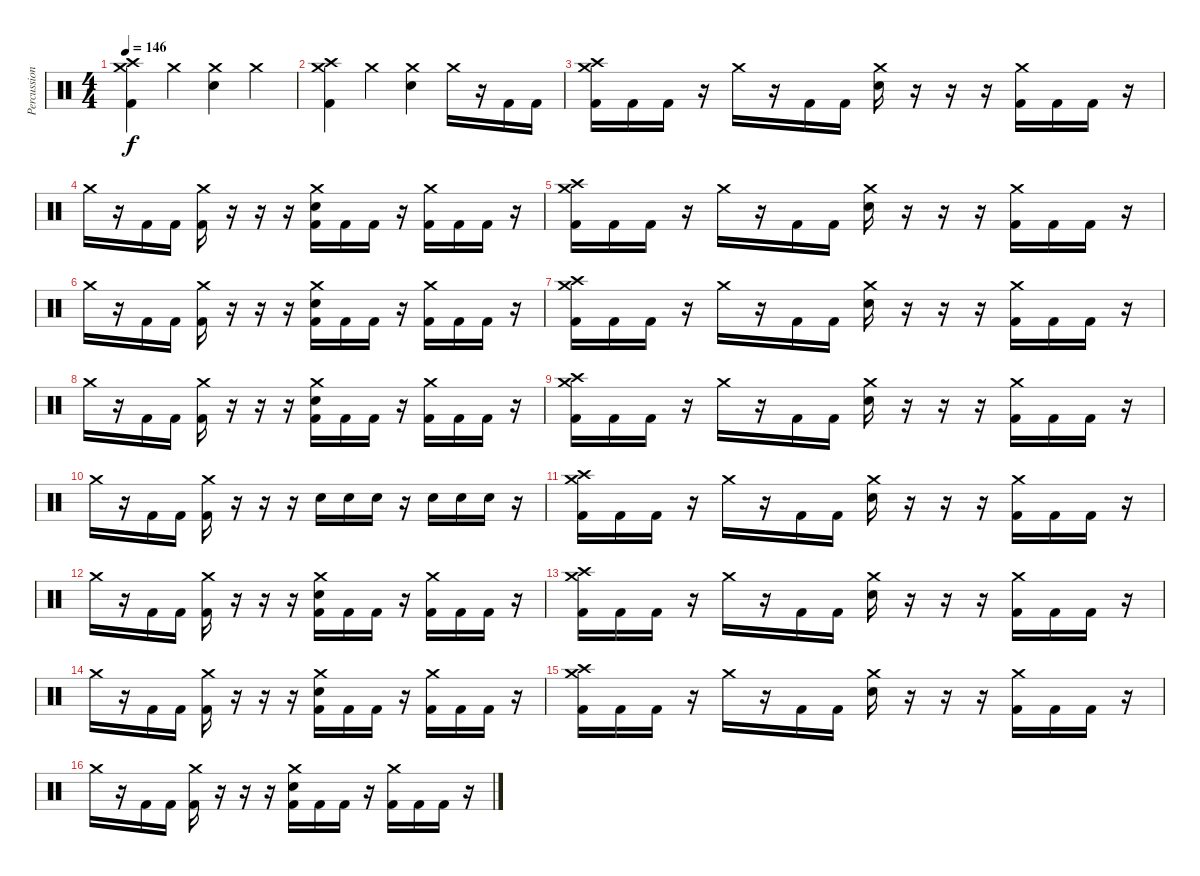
\track ("Percussion" "Percussion") {instrument percussion}
\staff {score}
\articulation defaults
\ts (4 4)
\tempo 146
\clef neutral
\ks c
("Crash high (hit)" "Crash medium (hit)" "Kick (hit) 2").4{dy f} "Crash medium (hit)".4 ("Crash medium (hit)" "Snare (hit) 2").4 "Crash medium (hit)".4 |
("Crash high (hit)" "Crash medium (hit)" "Kick (hit) 2").4 "Crash medium (hit)".4 ("Crash medium (hit)" "Snare (hit) 2").4 "Crash medium (hit)".16 r.16 "Kick (hit) 2".16 "Kick (hit) 2".16 |
("Crash high (hit)" "Crash medium (hit)" "Kick (hit) 2").16 "Kick (hit) 2".16 "Kick (hit) 2".16 r.16 "Crash medium (hit)".16 r.16 "Kick (hit) 2".16 "Kick (hit) 2".16 ("Crash medium (hit)" "Snare (hit) 2").16 r.16 r.16 r.16 ("Crash medium (hit)" "Kick (hit) 2").16 "Kick (hit) 2".16 "Kick (hit) 2".16 r.16 |
"Crash medium (hit)".16 r.16 "Kick (hit) 2".16 "Kick (hit) 2".16 ("Crash medium (hit)" "Kick (hit) 2").16 r.16 r.16 r.16 ("Crash medium (hit)" "Snare (hit) 2" "Kick (hit) 2").16 "Kick (hit) 2".16 "Kick (hit) 2".16 r.16 ("Crash medium (hit)" "Kick (hit) 2").16 "Kick (hit) 2".16 "Kick (hit) 2".16 r.16 |
("Crash high (hit)" "Crash medium (hit)" "Kick (hit) 2").16 "Kick (hit) 2".16 "Kick (hit) 2".16 r.16 "Crash medium (hit)".16 r.16 "Kick (hit) 2".16 "Kick (hit) 2".16 ("Crash medium (hit)" "Snare (hit) 2").16 r.16 r.16 r.16 ("Crash medium (hit)" "Kick (hit) 2").16 "Kick (hit) 2".16 "Kick (hit) 2".16 r.16 |
"Crash medium (hit)".16 r.16 "Kick (hit) 2".16 "Kick (hit) 2".16 ("Crash medium (hit)" "Kick (hit) 2").16 r.16 r.16 r.16 ("Crash medium (hit)" "Snare (hit) 2" "Kick (hit) 2").16 "Kick (hit) 2".16 "Kick (hit) 2".16 r.16 ("Crash medium (hit)" "Kick (hit) 2").16 "Kick (hit) 2".16 "Kick (hit) 2".16 r.16 |
("Crash high (hit)" "Crash medium (hit)" "Kick (hit) 2").16 "Kick (hit) 2".16 "Kick (hit) 2".16 r.16 "Crash medium (hit)".16 r.16 "Kick (hit) 2".16 "Kick (hit) 2".16 ("Crash medium (hit)" "Snare (hit) 2").16 r.16 r.16 r.16 ("Crash medium (hit)" "Kick (hit) 2").16 "Kick (hit) 2".16 "Kick (hit) 2".16 r.16 |
"Crash medium (hit)".16 r.16 "Kick (hit) 2".16 "Kick (hit) 2".16 ("Crash medium (hit)" "Kick (hit) 2").16 r.16 r.16 r.16 ("Crash medium (hit)" "Snare (hit) 2" "Kick (hit) 2").16 "Kick (hit) 2".16 "Kick (hit) 2".16 r.16 ("Crash medium (hit)" "Kick (hit) 2").16 "Kick (hit) 2".16 "Kick (hit) 2".16 r.16 |
("Crash high (hit)" "Crash medium (hit)" "Kick (hit) 2").16 "Kick (hit) 2".16 "Kick (hit) 2".16 r.16 "Crash medium (hit)".16 r.16 "Kick (hit) 2".16 "Kick (hit) 2".16 ("Crash medium (hit)" "Snare (hit) 2").16 r.16 r.16 r.16 ("Crash medium (hit)" "Kick (hit) 2").16 "Kick (hit) 2".16 "Kick (hit) 2".16 r.16 |
"Crash medium (hit)".16 r.16 "Kick (hit) 2".16 "Kick (hit) 2".16 ("Crash medium (hit)" "Kick (hit) 2").16 r.16 r.16 r.16 "Snare (hit) 2".16 "Snare (hit) 2".16 "Snare (hit) 2".16 r.16 "Snare (hit) 2".16 "Snare (hit) 2".16 "Snare (hit) 2".16 r.16 |
("Crash high (hit)" "Crash medium (hit)" "Kick (hit) 2").16 "Kick (hit) 2".16 "Kick (hit) 2".16 r.16 "Crash medium (hit)".16 r.16 "Kick (hit) 2".16 "Kick (hit) 2".16 ("Crash medium (hit)" "Snare (hit) 2").16 r.16 r.16 r.16 ("Crash medium (hit)" "Kick (hit) 2").16 "Kick (hit) 2".16 "Kick (hit) 2".16 r.16 |
"Crash medium (hit)".16 r.16 "Kick (hit) 2".16 "Kick (hit) 2".16 ("Crash medium (hit)" "Kick (hit) 2").16 r.16 r.16 r.16 ("Crash medium (hit)" "Snare (hit) 2" "Kick (hit) 2").16 "Kick (hit) 2".16 "Kick (hit) 2".16 r.16 ("Crash medium (hit)" "Kick (hit) 2").16 "Kick (hit) 2".16 "Kick (hit) 2".16 r.16 |
("Crash high (hit)" "Crash medium (hit)" "Kick (hit) 2").16 "Kick (hit) 2".16 "Kick (hit) 2".16 r.16 "Crash medium (hit)".16 r.16 "Kick (hit) 2".16 "Kick (hit) 2".16 ("Crash medium (hit)" "Snare (hit) 2").16 r.16 r.16 r.16 ("Crash medium (hit)" "Kick (hit) 2").16 "Kick (hit) 2".16 "Kick (hit) 2".16 r.16 |
"Crash medium (hit)".16 r.16 "Kick (hit) 2".16 "Kick (hit) 2".16 ("Crash medium (hit)" "Kick (hit) 2").16 r.16 r.16 r.16 ("Crash medium (hit)" "Snare (hit) 2" "Kick (hit) 2").16 "Kick (hit) 2".16 "Kick (hit) 2".16 r.16 ("Crash medium (hit)" "Kick (hit) 2").16 "Kick (hit) 2".16 "Kick (hit) 2".16 r.16 |
("Crash high (hit)" "Crash medium (hit)" "Kick (hit) 2").16 "Kick (hit) 2".16 "Kick (hit) 2".16 r.16 "Crash medium (hit)".16 r.16 "Kick (hit) 2".16 "Kick (hit) 2".16 ("Crash medium (hit)" "Snare (hit) 2").16 r.16 r.16 r.16 ("Crash medium (hit)" "Kick (hit) 2").16 "Kick (hit) 2".16 "Kick (hit) 2".16 r.16 |
"Crash medium (hit)".16 r.16 "Kick (hit) 2".16 "Kick (hit) 2".16 ("Crash medium (hit)" "Kick (hit) 2").16 r.16 r.16 r.16 ("Crash medium (hit)" "Snare (hit) 2" "Kick (hit) 2").16 "Kick (hit) 2".16 "Kick (hit) 2".16 r.16 ("Crash medium (hit)" "Kick (hit) 2").16 "Kick (hit) 2".16 "Kick (hit) 2".16 r.16
